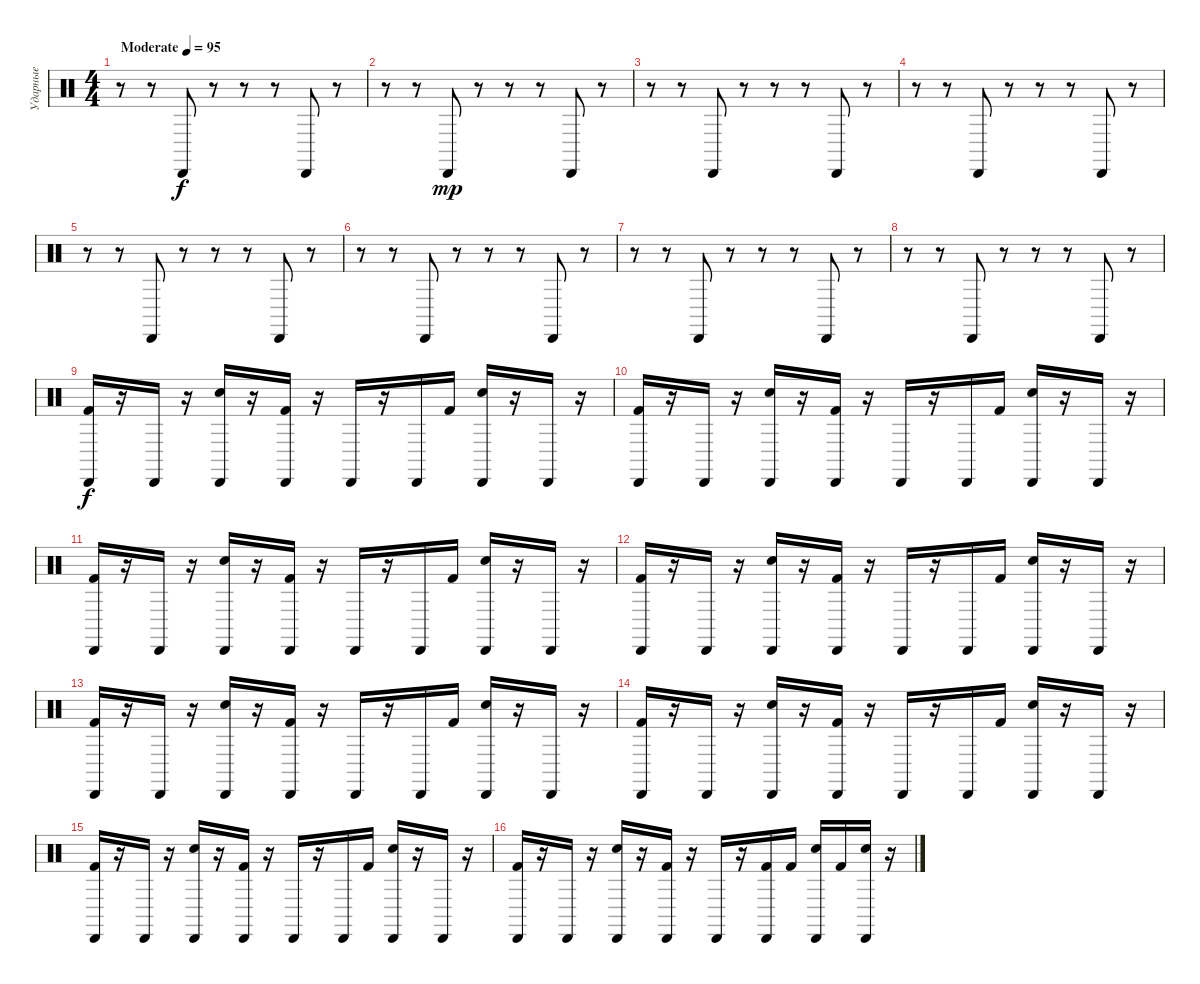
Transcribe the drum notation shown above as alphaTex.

\track ("Ударные" "Ударные") {instrument percussion}
\staff {score}
\articulation defaults
\ts (4 4)
\tempo (95 "Moderate")
\clef neutral
\ks c
r.8{dy f} r.8 "Cabasa (hit)".8 r.8 r.8 r.8 "Cabasa (hit)".8 r.8 |
r.8 r.8 "Cabasa (hit)".8{dy mp} r.8 r.8 r.8 "Cabasa (hit)".8 r.8 |
r.8 r.8 "Cabasa (hit)".8 r.8 r.8 r.8 "Cabasa (hit)".8 r.8 |
r.8 r.8 "Cabasa (hit)".8 r.8 r.8 r.8 "Cabasa (hit)".8 r.8 |
r.8 r.8 "Cabasa (hit)".8 r.8 r.8 r.8 "Cabasa (hit)".8 r.8 |
r.8 r.8 "Cabasa (hit)".8 r.8 r.8 r.8 "Cabasa (hit)".8 r.8 |
r.8 r.8 "Cabasa (hit)".8 r.8 r.8 r.8 "Cabasa (hit)".8 r.8 |
r.8 r.8 "Cabasa (hit)".8 r.8 r.8 r.8 "Cabasa (hit)".8 r.8 |
("Cabasa (hit)" "Kick (hit) 2").16{dy f} r.16 "Cabasa (hit)".16 r.16 ("Cabasa (hit)" "Snare (hit) 2").16 r.16 ("Cabasa (hit)" "Kick (hit) 2").16 r.16 "Cabasa (hit)".16 r.16 "Cabasa (hit)".16 "Kick (hit) 2".16 ("Cabasa (hit)" "Snare (hit) 2").16 r.16 "Cabasa (hit)".16 r.16 |
("Cabasa (hit)" "Kick (hit) 2").16 r.16 "Cabasa (hit)".16 r.16 ("Cabasa (hit)" "Snare (hit) 2").16 r.16 ("Cabasa (hit)" "Kick (hit) 2").16 r.16 "Cabasa (hit)".16 r.16 "Cabasa (hit)".16 "Kick (hit) 2".16 ("Cabasa (hit)" "Snare (hit) 2").16 r.16 "Cabasa (hit)".16 r.16 |
("Cabasa (hit)" "Kick (hit) 2").16 r.16 "Cabasa (hit)".16 r.16 ("Cabasa (hit)" "Snare (hit) 2").16 r.16 ("Cabasa (hit)" "Kick (hit) 2").16 r.16 "Cabasa (hit)".16 r.16 "Cabasa (hit)".16 "Kick (hit) 2".16 ("Cabasa (hit)" "Snare (hit) 2").16 r.16 "Cabasa (hit)".16 r.16 |
("Cabasa (hit)" "Kick (hit) 2").16 r.16 "Cabasa (hit)".16 r.16 ("Cabasa (hit)" "Snare (hit) 2").16 r.16 ("Cabasa (hit)" "Kick (hit) 2").16 r.16 "Cabasa (hit)".16 r.16 "Cabasa (hit)".16 "Kick (hit) 2".16 ("Cabasa (hit)" "Snare (hit) 2").16 r.16 "Cabasa (hit)".16 r.16 |
("Cabasa (hit)" "Kick (hit) 2").16 r.16 "Cabasa (hit)".16 r.16 ("Cabasa (hit)" "Snare (hit) 2").16 r.16 ("Cabasa (hit)" "Kick (hit) 2").16 r.16 "Cabasa (hit)".16 r.16 "Cabasa (hit)".16 "Kick (hit) 2".16 ("Cabasa (hit)" "Snare (hit) 2").16 r.16 "Cabasa (hit)".16 r.16 |
("Cabasa (hit)" "Kick (hit) 2").16 r.16 "Cabasa (hit)".16 r.16 ("Cabasa (hit)" "Snare (hit) 2").16 r.16 ("Cabasa (hit)" "Kick (hit) 2").16 r.16 "Cabasa (hit)".16 r.16 "Cabasa (hit)".16 "Kick (hit) 2".16 ("Cabasa (hit)" "Snare (hit) 2").16 r.16 "Cabasa (hit)".16 r.16 |
("Cabasa (hit)" "Kick (hit) 2").16 r.16 "Cabasa (hit)".16 r.16 ("Cabasa (hit)" "Snare (hit) 2").16 r.16 ("Cabasa (hit)" "Kick (hit) 2").16 r.16 "Cabasa (hit)".16 r.16 "Cabasa (hit)".16 "Kick (hit) 2".16 ("Cabasa (hit)" "Snare (hit) 2").16 r.16 "Cabasa (hit)".16 r.16 |
("Cabasa (hit)" "Kick (hit) 2").16 r.16 "Cabasa (hit)".16 r.16 ("Cabasa (hit)" "Snare (hit) 2").16 r.16 ("Cabasa (hit)" "Kick (hit) 2").16 r.16 "Cabasa (hit)".16 r.16 ("Cabasa (hit)" "Kick (hit) 2").16 "Kick (hit) 2".16 ("Cabasa (hit)" "Snare (hit) 2").16 "Kick (hit) 2".16 ("Cabasa (hit)" "Snare (hit) 2").16 r.16
